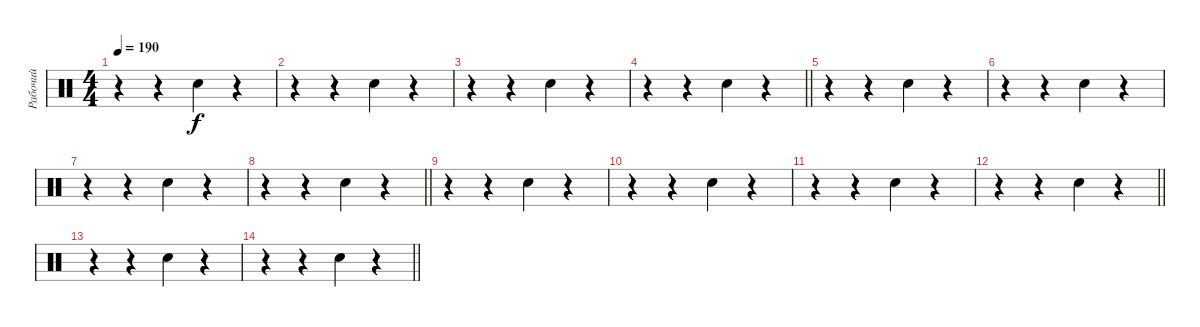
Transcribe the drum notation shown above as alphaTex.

\track ("Рабочий" "Рабочий") {instrument percussion}
\staff {score}
\articulation defaults
\ts (4 4)
\tempo 190
\clef neutral
\ks c
r.4{dy f} r.4 "Snare (hit) 2".4 r.4 |
r.4 r.4 "Snare (hit) 2".4 r.4 |
r.4 r.4 "Snare (hit) 2".4 r.4 |
\barLineRight lightlight
r.4 r.4 "Snare (hit) 2".4 r.4 |
r.4 r.4 "Snare (hit) 2".4 r.4 |
r.4 r.4 "Snare (hit) 2".4 r.4 |
r.4 r.4 "Snare (hit) 2".4 r.4 |
\barLineRight lightlight
r.4 r.4 "Snare (hit) 2".4 r.4 |
r.4 r.4 "Snare (hit) 2".4 r.4 |
r.4 r.4 "Snare (hit) 2".4 r.4 |
r.4 r.4 "Snare (hit) 2".4 r.4 |
\barLineRight lightlight
r.4 r.4 "Snare (hit) 2".4 r.4 |
r.4 r.4 "Snare (hit) 2".4 r.4 |
\barLineRight lightlight
r.4 r.4 "Snare (hit) 2".4 r.4
